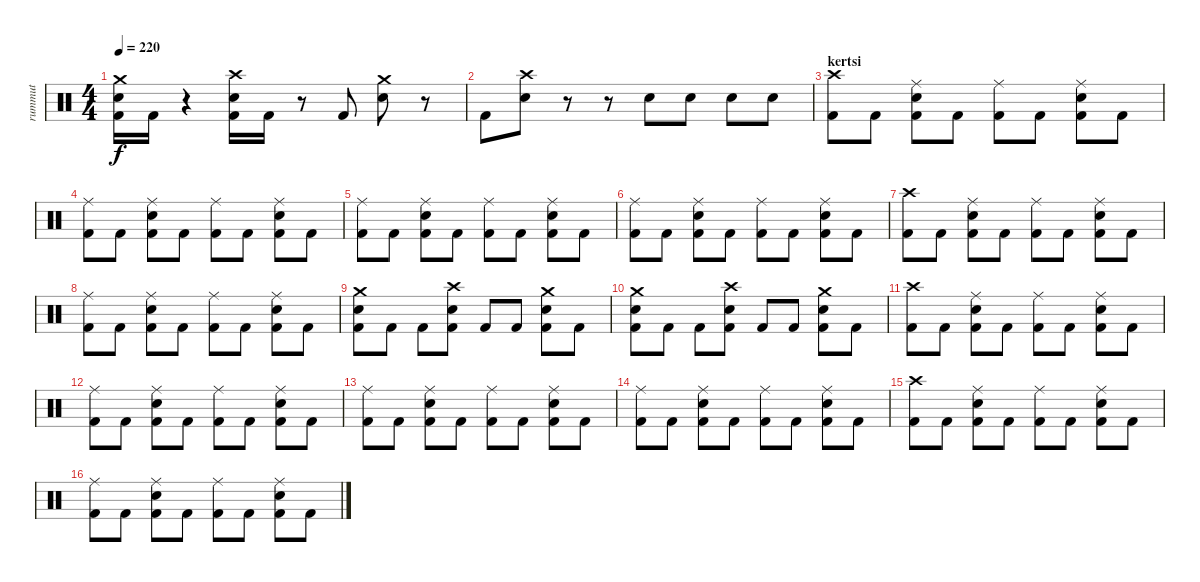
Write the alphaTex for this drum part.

\track ("rummut" "rummut") {instrument percussion}
\staff {score}
\articulation defaults
\ts (4 4)
\tempo 220
\clef neutral
\ks c
("Crash medium (hit)" "Electric Snare (hit)" "Kick (hit) 2").16{dy f} "Kick (hit) 2".16 r.4 ("Crash high (hit)" "Electric Snare (hit)" "Kick (hit) 2").16 "Kick (hit) 2".16 r.8 "Kick (hit) 2".8 ("Crash medium (hit)" "Electric Snare (hit)").8 r.8 |
"Kick (hit) 2".8 ("Crash high (hit)" "Electric Snare (hit)").8 r.8 r.8 "Electric Snare (hit)".8 "Electric Snare (hit)".8 "Electric Snare (hit)".8 "Electric Snare (hit)".8 |
\section ("" "kertsi")
("Crash high (hit)" "Kick (hit) 2").8 "Kick (hit) 2".8 ("Ride (middle)" "Electric Snare (hit)" "Kick (hit) 2").8 "Kick (hit) 2".8 ("Ride (middle)" "Kick (hit) 2").8 "Kick (hit) 2".8 ("Ride (middle)" "Electric Snare (hit)" "Kick (hit) 2").8 "Kick (hit) 2".8 |
("Ride (middle)" "Kick (hit) 2").8 "Kick (hit) 2".8 ("Ride (middle)" "Electric Snare (hit)" "Kick (hit) 2").8 "Kick (hit) 2".8 ("Ride (middle)" "Kick (hit) 2").8 "Kick (hit) 2".8 ("Ride (middle)" "Electric Snare (hit)" "Kick (hit) 2").8 "Kick (hit) 2".8 |
("Ride (middle)" "Kick (hit) 2").8 "Kick (hit) 2".8 ("Ride (middle)" "Electric Snare (hit)" "Kick (hit) 2").8 "Kick (hit) 2".8 ("Ride (middle)" "Kick (hit) 2").8 "Kick (hit) 2".8 ("Ride (middle)" "Electric Snare (hit)" "Kick (hit) 2").8 "Kick (hit) 2".8 |
("Ride (middle)" "Kick (hit) 2").8 "Kick (hit) 2".8 ("Ride (middle)" "Electric Snare (hit)" "Kick (hit) 2").8 "Kick (hit) 2".8 ("Ride (middle)" "Kick (hit) 2").8 "Kick (hit) 2".8 ("Ride (middle)" "Electric Snare (hit)" "Kick (hit) 2").8 "Kick (hit) 2".8 |
("Crash high (hit)" "Kick (hit) 2").8 "Kick (hit) 2".8 ("Ride (middle)" "Electric Snare (hit)" "Kick (hit) 2").8 "Kick (hit) 2".8 ("Ride (middle)" "Kick (hit) 2").8 "Kick (hit) 2".8 ("Ride (middle)" "Electric Snare (hit)" "Kick (hit) 2").8 "Kick (hit) 2".8 |
("Ride (middle)" "Kick (hit) 2").8 "Kick (hit) 2".8 ("Ride (middle)" "Electric Snare (hit)" "Kick (hit) 2").8 "Kick (hit) 2".8 ("Ride (middle)" "Kick (hit) 2").8 "Kick (hit) 2".8 ("Ride (middle)" "Electric Snare (hit)" "Kick (hit) 2").8 "Kick (hit) 2".8 |
("Crash medium (hit)" "Electric Snare (hit)" "Kick (hit) 2").8 "Kick (hit) 2".8 "Kick (hit) 2".8 ("Crash high (hit)" "Electric Snare (hit)" "Kick (hit) 2").8 "Kick (hit) 2".8 "Kick (hit) 2".8 ("Crash medium (hit)" "Electric Snare (hit)" "Kick (hit) 2").8 "Kick (hit) 2".8 |
("Crash medium (hit)" "Electric Snare (hit)" "Kick (hit) 2").8 "Kick (hit) 2".8 "Kick (hit) 2".8 ("Crash high (hit)" "Electric Snare (hit)" "Kick (hit) 2").8 "Kick (hit) 2".8 "Kick (hit) 2".8 ("Crash medium (hit)" "Electric Snare (hit)" "Kick (hit) 2").8 "Kick (hit) 2".8 |
("Crash high (hit)" "Kick (hit) 2").8 "Kick (hit) 2".8 ("Ride (middle)" "Electric Snare (hit)" "Kick (hit) 2").8 "Kick (hit) 2".8 ("Ride (middle)" "Kick (hit) 2").8 "Kick (hit) 2".8 ("Ride (middle)" "Electric Snare (hit)" "Kick (hit) 2").8 "Kick (hit) 2".8 |
("Ride (middle)" "Kick (hit) 2").8 "Kick (hit) 2".8 ("Ride (middle)" "Electric Snare (hit)" "Kick (hit) 2").8 "Kick (hit) 2".8 ("Ride (middle)" "Kick (hit) 2").8 "Kick (hit) 2".8 ("Ride (middle)" "Electric Snare (hit)" "Kick (hit) 2").8 "Kick (hit) 2".8 |
("Ride (middle)" "Kick (hit) 2").8 "Kick (hit) 2".8 ("Ride (middle)" "Electric Snare (hit)" "Kick (hit) 2").8 "Kick (hit) 2".8 ("Ride (middle)" "Kick (hit) 2").8 "Kick (hit) 2".8 ("Ride (middle)" "Electric Snare (hit)" "Kick (hit) 2").8 "Kick (hit) 2".8 |
("Ride (middle)" "Kick (hit) 2").8 "Kick (hit) 2".8 ("Ride (middle)" "Electric Snare (hit)" "Kick (hit) 2").8 "Kick (hit) 2".8 ("Ride (middle)" "Kick (hit) 2").8 "Kick (hit) 2".8 ("Ride (middle)" "Electric Snare (hit)" "Kick (hit) 2").8 "Kick (hit) 2".8 |
("Crash high (hit)" "Kick (hit) 2").8 "Kick (hit) 2".8 ("Ride (middle)" "Electric Snare (hit)" "Kick (hit) 2").8 "Kick (hit) 2".8 ("Ride (middle)" "Kick (hit) 2").8 "Kick (hit) 2".8 ("Ride (middle)" "Electric Snare (hit)" "Kick (hit) 2").8 "Kick (hit) 2".8 |
("Ride (middle)" "Kick (hit) 2").8 "Kick (hit) 2".8 ("Ride (middle)" "Electric Snare (hit)" "Kick (hit) 2").8 "Kick (hit) 2".8 ("Ride (middle)" "Kick (hit) 2").8 "Kick (hit) 2".8 ("Ride (middle)" "Electric Snare (hit)" "Kick (hit) 2").8 "Kick (hit) 2".8
